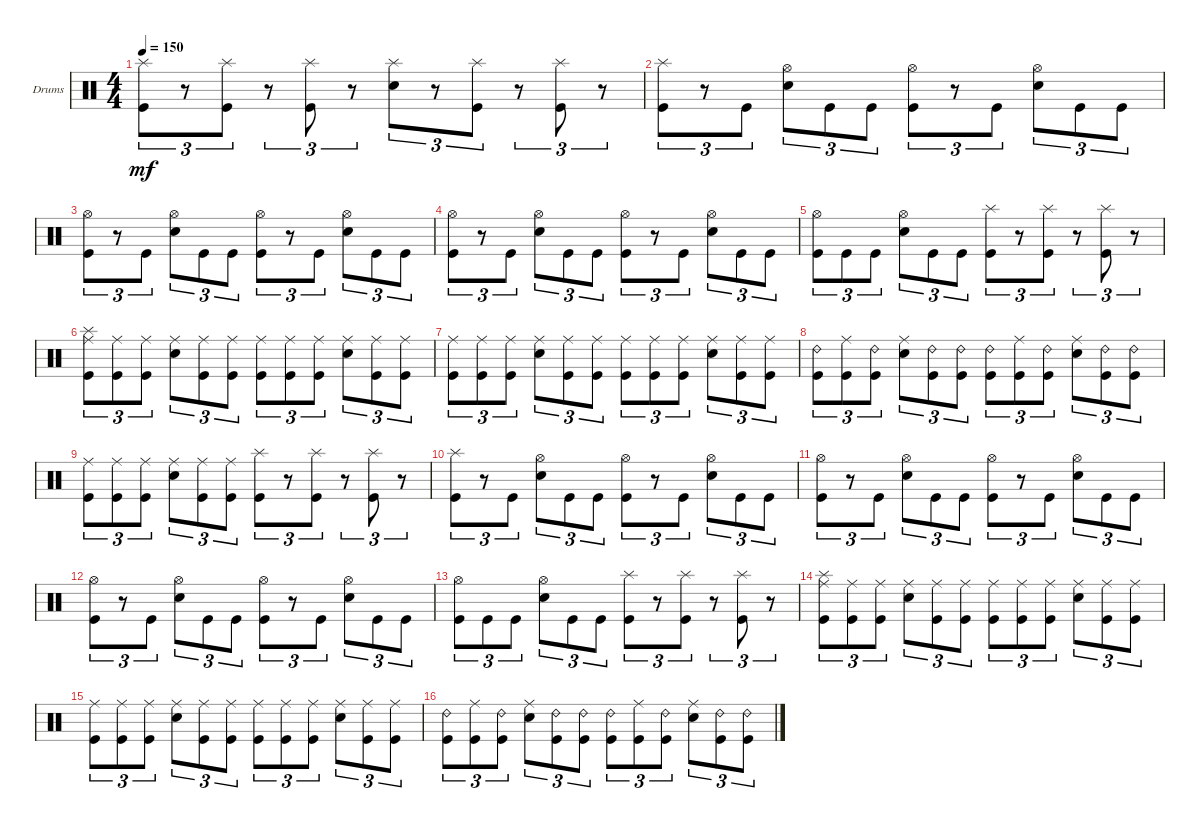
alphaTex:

\bracketExtendMode groupsimilarinstruments
\firstSystemTrackNameOrientation horizontal
\otherSystemsTrackNameOrientation horizontal
\track ("Drumkit" "Drums") {instrument percussion}
\staff {score}
\articulation defaults
\ts (4 4)
\tempo 150
\clef neutral
\ks c
("Kick (hit)" "Splash (hit)").8{tu (3 2) dy mf} r.8{tu (3 2)} ("Kick (hit)" "Splash (hit)").8{tu (3 2)} r.8{tu (3 2)} ("Kick (hit)" "Splash (hit)").8{tu (3 2)} r.8{tu (3 2)} ("Snare (hit) 2" "Splash (hit)").8{tu (3 2)} r.8{tu (3 2)} ("Kick (hit)" "Splash (hit)").8{tu (3 2)} r.8{tu (3 2)} ("Kick (hit)" "Splash (hit)").8{tu (3 2)} r.8{tu (3 2)} |
("Kick (hit)" "Splash (hit)").8{tu (3 2)} r.8{tu (3 2)} "Kick (hit)".8{tu (3 2)} ("Snare (hit) 2" "Hi-Hat (open)").8{tu (3 2)} "Kick (hit)".8{tu (3 2)} "Kick (hit)".8{tu (3 2)} ("Kick (hit)" "Hi-Hat (open)").8{tu (3 2)} r.8{tu (3 2)} "Kick (hit)".8{tu (3 2)} ("Snare (hit) 2" "Hi-Hat (open)").8{tu (3 2)} "Kick (hit)".8{tu (3 2)} "Kick (hit)".8{tu (3 2)} |
("Kick (hit)" "Hi-Hat (open)").8{tu (3 2)} r.8{tu (3 2)} "Kick (hit)".8{tu (3 2)} ("Snare (hit) 2" "Hi-Hat (open)").8{tu (3 2)} "Kick (hit)".8{tu (3 2)} "Kick (hit)".8{tu (3 2)} ("Kick (hit)" "Hi-Hat (open)").8{tu (3 2)} r.8{tu (3 2)} "Kick (hit)".8{tu (3 2)} ("Snare (hit) 2" "Hi-Hat (open)").8{tu (3 2)} "Kick (hit)".8{tu (3 2)} "Kick (hit)".8{tu (3 2)} |
("Kick (hit)" "Hi-Hat (open)").8{tu (3 2)} r.8{tu (3 2)} "Kick (hit)".8{tu (3 2)} ("Snare (hit) 2" "Hi-Hat (open)").8{tu (3 2)} "Kick (hit)".8{tu (3 2)} "Kick (hit)".8{tu (3 2)} ("Kick (hit)" "Hi-Hat (open)").8{tu (3 2)} r.8{tu (3 2)} "Kick (hit)".8{tu (3 2)} ("Snare (hit) 2" "Hi-Hat (open)").8{tu (3 2)} "Kick (hit)".8{tu (3 2)} "Kick (hit)".8{tu (3 2)} |
("Kick (hit)" "Hi-Hat (open)").8{tu (3 2)} "Kick (hit)".8{tu (3 2)} "Kick (hit)".8{tu (3 2)} ("Snare (hit) 2" "Hi-Hat (open)").8{tu (3 2)} "Kick (hit)".8{tu (3 2)} "Kick (hit)".8{tu (3 2)} ("Kick (hit)" "Splash (hit)").8{tu (3 2)} r.8{tu (3 2)} ("Kick (hit)" "Splash (hit)").8{tu (3 2)} r.8{tu (3 2)} ("Kick (hit)" "Splash (hit)").8{tu (3 2)} r.8{tu (3 2)} |
("Kick (hit)" "Splash (hit)" "Ride (middle)").8{tu (3 2)} ("Kick (hit)" "Ride (middle)").8{tu (3 2)} ("Kick (hit)" "Ride (middle)").8{tu (3 2)} ("Ride (middle)" "Snare (hit) 2").8{tu (3 2)} ("Kick (hit)" "Ride (middle)").8{tu (3 2)} ("Kick (hit)" "Ride (middle)").8{tu (3 2)} ("Kick (hit)" "Ride (middle)").8{tu (3 2)} ("Kick (hit)" "Ride (middle)").8{tu (3 2)} ("Kick (hit)" "Ride (middle)").8{tu (3 2)} ("Ride (middle)" "Snare (hit) 2").8{tu (3 2)} ("Kick (hit)" "Ride (middle)").8{tu (3 2)} ("Kick (hit)" "Ride (middle)").8{tu (3 2)} |
("Kick (hit)" "Ride (middle)").8{tu (3 2)} ("Kick (hit)" "Ride (middle)").8{tu (3 2)} ("Kick (hit)" "Ride (middle)").8{tu (3 2)} ("Ride (middle)" "Snare (hit) 2").8{tu (3 2)} ("Kick (hit)" "Ride (middle)").8{tu (3 2)} ("Kick (hit)" "Ride (middle)").8{tu (3 2)} ("Kick (hit)" "Ride (middle)").8{tu (3 2)} ("Kick (hit)" "Ride (middle)").8{tu (3 2)} ("Kick (hit)" "Ride (middle)").8{tu (3 2)} ("Ride (middle)" "Snare (hit) 2").8{tu (3 2)} ("Kick (hit)" "Ride (middle)").8{tu (3 2)} ("Kick (hit)" "Ride (middle)").8{tu (3 2)} |
("Kick (hit)" "Ride (bell) 2").8{tu (3 2)} ("Kick (hit)" "Ride (middle)").8{tu (3 2)} ("Kick (hit)" "Ride (bell) 2").8{tu (3 2)} ("Ride (middle)" "Snare (hit) 2").8{tu (3 2)} ("Kick (hit)" "Ride (bell) 2").8{tu (3 2)} ("Kick (hit)" "Ride (bell) 2").8{tu (3 2)} ("Kick (hit)" "Ride (bell) 2").8{tu (3 2)} ("Kick (hit)" "Ride (middle)").8{tu (3 2)} ("Kick (hit)" "Ride (bell) 2").8{tu (3 2)} ("Ride (middle)" "Snare (hit) 2").8{tu (3 2)} ("Kick (hit)" "Ride (bell) 2").8{tu (3 2)} ("Kick (hit)" "Ride (bell) 2").8{tu (3 2)} |
("Kick (hit)" "Ride (middle)").8{tu (3 2)} ("Kick (hit)" "Ride (middle)").8{tu (3 2)} ("Kick (hit)" "Ride (middle)").8{tu (3 2)} ("Snare (hit) 2" "Ride (middle)").8{tu (3 2)} ("Kick (hit)" "Ride (middle)").8{tu (3 2)} ("Kick (hit)" "Ride (middle)").8{tu (3 2)} ("Kick (hit)" "Splash (hit)").8{tu (3 2)} r.8{tu (3 2)} ("Kick (hit)" "Splash (hit)").8{tu (3 2)} r.8{tu (3 2)} ("Kick (hit)" "Splash (hit)").8{tu (3 2)} r.8{tu (3 2)} |
("Kick (hit)" "Splash (hit)").8{tu (3 2)} r.8{tu (3 2)} "Kick (hit)".8{tu (3 2)} ("Snare (hit) 2" "Hi-Hat (open)").8{tu (3 2)} "Kick (hit)".8{tu (3 2)} "Kick (hit)".8{tu (3 2)} ("Kick (hit)" "Hi-Hat (open)").8{tu (3 2)} r.8{tu (3 2)} "Kick (hit)".8{tu (3 2)} ("Snare (hit) 2" "Hi-Hat (open)").8{tu (3 2)} "Kick (hit)".8{tu (3 2)} "Kick (hit)".8{tu (3 2)} |
("Kick (hit)" "Hi-Hat (open)").8{tu (3 2)} r.8{tu (3 2)} "Kick (hit)".8{tu (3 2)} ("Snare (hit) 2" "Hi-Hat (open)").8{tu (3 2)} "Kick (hit)".8{tu (3 2)} "Kick (hit)".8{tu (3 2)} ("Kick (hit)" "Hi-Hat (open)").8{tu (3 2)} r.8{tu (3 2)} "Kick (hit)".8{tu (3 2)} ("Snare (hit) 2" "Hi-Hat (open)").8{tu (3 2)} "Kick (hit)".8{tu (3 2)} "Kick (hit)".8{tu (3 2)} |
("Kick (hit)" "Hi-Hat (open)").8{tu (3 2)} r.8{tu (3 2)} "Kick (hit)".8{tu (3 2)} ("Snare (hit) 2" "Hi-Hat (open)").8{tu (3 2)} "Kick (hit)".8{tu (3 2)} "Kick (hit)".8{tu (3 2)} ("Kick (hit)" "Hi-Hat (open)").8{tu (3 2)} r.8{tu (3 2)} "Kick (hit)".8{tu (3 2)} ("Snare (hit) 2" "Hi-Hat (open)").8{tu (3 2)} "Kick (hit)".8{tu (3 2)} "Kick (hit)".8{tu (3 2)} |
("Kick (hit)" "Hi-Hat (open)").8{tu (3 2)} "Kick (hit)".8{tu (3 2)} "Kick (hit)".8{tu (3 2)} ("Snare (hit) 2" "Hi-Hat (open)").8{tu (3 2)} "Kick (hit)".8{tu (3 2)} "Kick (hit)".8{tu (3 2)} ("Kick (hit)" "Splash (hit)").8{tu (3 2)} r.8{tu (3 2)} ("Kick (hit)" "Splash (hit)").8{tu (3 2)} r.8{tu (3 2)} ("Kick (hit)" "Splash (hit)").8{tu (3 2)} r.8{tu (3 2)} |
("Kick (hit)" "Splash (hit)" "Ride (middle)").8{tu (3 2)} ("Kick (hit)" "Ride (middle)").8{tu (3 2)} ("Kick (hit)" "Ride (middle)").8{tu (3 2)} ("Ride (middle)" "Snare (hit) 2").8{tu (3 2)} ("Kick (hit)" "Ride (middle)").8{tu (3 2)} ("Kick (hit)" "Ride (middle)").8{tu (3 2)} ("Kick (hit)" "Ride (middle)").8{tu (3 2)} ("Kick (hit)" "Ride (middle)").8{tu (3 2)} ("Kick (hit)" "Ride (middle)").8{tu (3 2)} ("Ride (middle)" "Snare (hit) 2").8{tu (3 2)} ("Kick (hit)" "Ride (middle)").8{tu (3 2)} ("Kick (hit)" "Ride (middle)").8{tu (3 2)} |
("Kick (hit)" "Ride (middle)").8{tu (3 2)} ("Kick (hit)" "Ride (middle)").8{tu (3 2)} ("Kick (hit)" "Ride (middle)").8{tu (3 2)} ("Ride (middle)" "Snare (hit) 2").8{tu (3 2)} ("Kick (hit)" "Ride (middle)").8{tu (3 2)} ("Kick (hit)" "Ride (middle)").8{tu (3 2)} ("Kick (hit)" "Ride (middle)").8{tu (3 2)} ("Kick (hit)" "Ride (middle)").8{tu (3 2)} ("Kick (hit)" "Ride (middle)").8{tu (3 2)} ("Ride (middle)" "Snare (hit) 2").8{tu (3 2)} ("Kick (hit)" "Ride (middle)").8{tu (3 2)} ("Kick (hit)" "Ride (middle)").8{tu (3 2)} |
("Kick (hit)" "Ride (bell) 2").8{tu (3 2)} ("Kick (hit)" "Ride (middle)").8{tu (3 2)} ("Kick (hit)" "Ride (bell) 2").8{tu (3 2)} ("Ride (middle)" "Snare (hit) 2").8{tu (3 2)} ("Kick (hit)" "Ride (bell) 2").8{tu (3 2)} ("Kick (hit)" "Ride (bell) 2").8{tu (3 2)} ("Kick (hit)" "Ride (bell) 2").8{tu (3 2)} ("Kick (hit)" "Ride (middle)").8{tu (3 2)} ("Kick (hit)" "Ride (bell) 2").8{tu (3 2)} ("Ride (middle)" "Snare (hit) 2").8{tu (3 2)} ("Kick (hit)" "Ride (bell) 2").8{tu (3 2)} ("Kick (hit)" "Ride (bell) 2").8{tu (3 2)}
